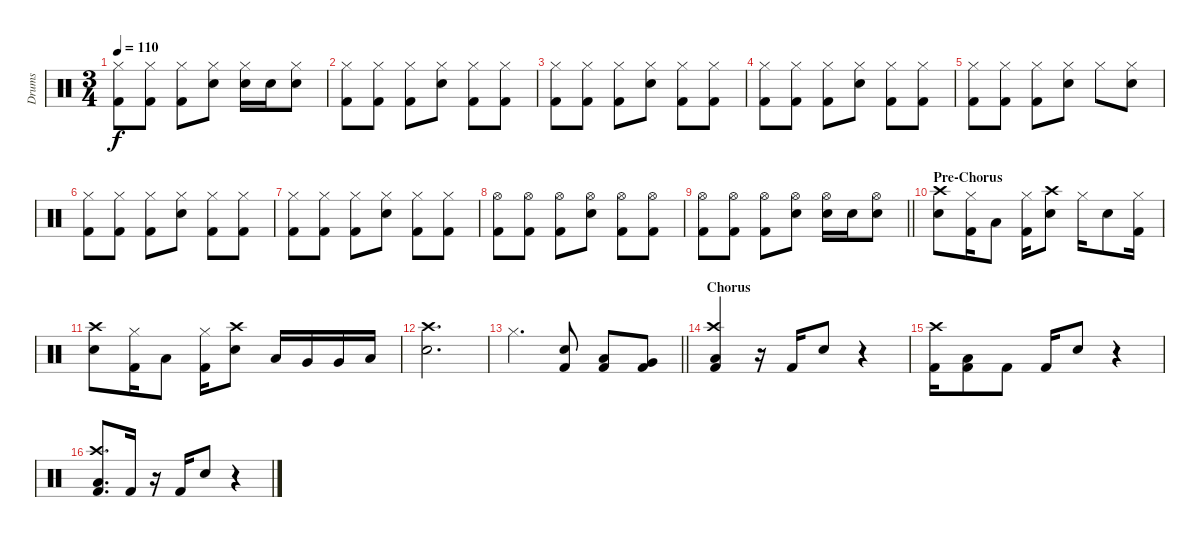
\track ("Drums" "Drums") {instrument percussion}
\staff {score}
\articulation defaults
\ts (3 4)
\tempo 110
\clef neutral
\ks c
("Hi-Hat (closed)" "Kick (hit) 2").8{dy f} ("Hi-Hat (closed)" "Kick (hit) 2").8 ("Hi-Hat (closed)" "Kick (hit) 2").8 ("Hi-Hat (closed)" "Snare (hit) 2").8 ("Hi-Hat (closed)" "Snare (hit) 2").16 "Snare (hit) 2".16 ("Hi-Hat (closed)" "Snare (hit) 2").8 |
("Hi-Hat (closed)" "Kick (hit) 2").8 ("Hi-Hat (closed)" "Kick (hit) 2").8 ("Hi-Hat (closed)" "Kick (hit) 2").8 ("Hi-Hat (closed)" "Snare (hit) 2").8 ("Hi-Hat (closed)" "Kick (hit) 2").8 ("Hi-Hat (closed)" "Kick (hit) 2").8 |
("Hi-Hat (closed)" "Kick (hit) 2").8 ("Hi-Hat (closed)" "Kick (hit) 2").8 ("Hi-Hat (closed)" "Kick (hit) 2").8 ("Hi-Hat (closed)" "Snare (hit) 2").8 ("Hi-Hat (closed)" "Kick (hit) 2").8 ("Hi-Hat (closed)" "Kick (hit) 2").8 |
("Hi-Hat (closed)" "Kick (hit) 2").8 ("Hi-Hat (closed)" "Kick (hit) 2").8 ("Hi-Hat (closed)" "Kick (hit) 2").8 ("Hi-Hat (closed)" "Snare (hit) 2").8 ("Hi-Hat (closed)" "Kick (hit) 2").8 ("Hi-Hat (closed)" "Kick (hit) 2").8 |
("Hi-Hat (closed)" "Kick (hit) 2").8 ("Hi-Hat (closed)" "Kick (hit) 2").8 ("Hi-Hat (closed)" "Kick (hit) 2").8 ("Hi-Hat (closed)" "Snare (hit) 2").8 "Hi-Hat (closed)".8 ("Hi-Hat (closed)" "Snare (hit) 2").8 |
("Hi-Hat (closed)" "Kick (hit) 2").8 ("Hi-Hat (closed)" "Kick (hit) 2").8 ("Hi-Hat (closed)" "Kick (hit) 2").8 ("Hi-Hat (closed)" "Snare (hit) 2").8 ("Hi-Hat (closed)" "Kick (hit) 2").8 ("Hi-Hat (closed)" "Kick (hit) 2").8 |
("Hi-Hat (closed)" "Kick (hit) 2").8 ("Hi-Hat (closed)" "Kick (hit) 2").8 ("Hi-Hat (closed)" "Kick (hit) 2").8 ("Hi-Hat (closed)" "Snare (hit) 2").8 ("Hi-Hat (closed)" "Kick (hit) 2").8 ("Hi-Hat (closed)" "Kick (hit) 2").8 |
("Hi-Hat (open)" "Kick (hit) 2").8 ("Hi-Hat (open)" "Kick (hit) 2").8 ("Hi-Hat (open)" "Kick (hit) 2").8 ("Hi-Hat (open)" "Snare (hit) 2").8 ("Hi-Hat (open)" "Kick (hit) 2").8 ("Hi-Hat (open)" "Kick (hit) 2").8 |
\barLineRight lightlight
("Hi-Hat (open)" "Kick (hit) 2").8 ("Hi-Hat (open)" "Kick (hit) 2").8 ("Hi-Hat (open)" "Kick (hit) 2").8 ("Hi-Hat (open)" "Snare (hit) 2").8 ("Hi-Hat (open)" "Snare (hit) 2").16 "Snare (hit) 2".16 ("Hi-Hat (open)" "Snare (hit) 2").8 |
\section ("" "Pre-Chorus")
("Crash high (hit)" "Snare (hit) 2").8 ("Hi-Hat (closed)" "Kick (hit) 2").16 "Low Tom (hit)".8 ("Hi-Hat (closed)" "Kick (hit) 2").16 ("Crash high (hit)" "Snare (hit) 2").8 "Hi-Hat (closed)".16 "Snare (hit) 2".8 ("Hi-Hat (closed)" "Kick (hit) 2").16 |
("Crash high (hit)" "Snare (hit) 2").8 ("Hi-Hat (closed)" "Kick (hit) 2").16 "Low Tom (hit)".8 ("Hi-Hat (closed)" "Kick (hit) 2").16 ("Crash high (hit)" "Snare (hit) 2").8 "Low Tom (hit)".16 "Very Low Tom (hit)".16 "Very Low Tom (hit)".16 "Low Floor Tom (hit)".16 |
("Crash high (hit)" "Snare (hit) 2").2{d} |
\barLineRight lightlight "Hi-Hat (closed)".4{d}
("Snare (hit) 2" "Kick (hit) 2").8 ("Low Tom (hit)" "Kick (hit) 2").8 ("Very Low Tom (hit)" "Kick (hit) 2").8 |
\section ("" "Chorus")
("Crash high (hit)" "Low Floor Tom (hit)" "Kick (hit) 2").4 r.16 "Kick (hit) 2".16 "Snare (hit) 2".8 r.4 |
("Crash high (hit)" "Kick (hit) 2").16 ("Low Floor Tom (hit)" "Kick (hit) 2").8 "Kick (hit) 2".8 "Kick (hit) 2".16 "Snare (hit) 2".8 r.4 |
("Crash high (hit)" "Low Floor Tom (hit)" "Kick (hit) 2").8{d} "Kick (hit) 2".16 r.16 "Kick (hit) 2".16 "Snare (hit) 2".8 r.4
